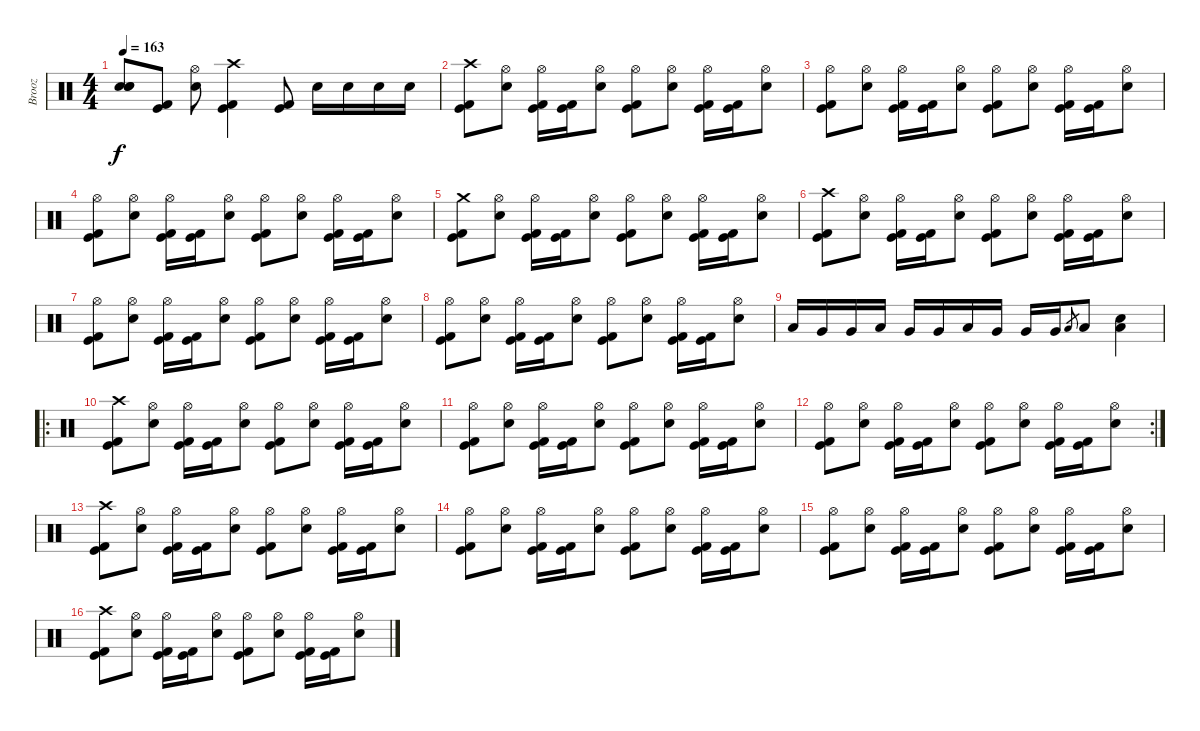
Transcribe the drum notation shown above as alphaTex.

\track ("Brooz" "Brooz") {instrument percussion}
\staff {score}
\articulation defaults
\ts (4 4)
\tempo 163
\clef neutral
\ks c
("Snare (hit)"{t} "Snare (hit)"{t} "Snare (hit)"{t}).8{dy f} ("Kick (hit) 2" "Kick (hit)").8 ("Snare (hit) 2" "Hi-Hat (open)").8 ("Kick (hit) 2" "Kick (hit)" "Crash high (hit)").4 ("Kick (hit) 2" "Kick (hit)").8 "Snare (hit) 2".16 "Snare (hit) 2".16 "Snare (hit) 2".16 "Snare (hit) 2".16 |
("Kick (hit) 2" "Kick (hit)" "Crash high (hit)").8 ("Snare (hit) 2" "Hi-Hat (open)").8 ("Hi-Hat (open)" "Kick (hit) 2" "Kick (hit)").16 ("Kick (hit) 2" "Kick (hit)").16 ("Hi-Hat (open)" "Snare (hit) 2").8 ("Kick (hit) 2" "Kick (hit)" "Hi-Hat (open)").8 ("Snare (hit) 2" "Hi-Hat (open)").8 ("Hi-Hat (open)" "Kick (hit) 2" "Kick (hit)").16 ("Kick (hit) 2" "Kick (hit)").16 ("Hi-Hat (open)" "Snare (hit) 2").8 |
("Kick (hit) 2" "Kick (hit)" "Hi-Hat (open)").8 ("Snare (hit) 2" "Hi-Hat (open)").8 ("Hi-Hat (open)" "Kick (hit) 2" "Kick (hit)").16 ("Kick (hit) 2" "Kick (hit)").16 ("Hi-Hat (open)" "Snare (hit) 2").8 ("Kick (hit) 2" "Kick (hit)" "Hi-Hat (open)").8 ("Snare (hit) 2" "Hi-Hat (open)").8 ("Hi-Hat (open)" "Kick (hit) 2" "Kick (hit)").16 ("Kick (hit) 2" "Kick (hit)").16 ("Hi-Hat (open)" "Snare (hit) 2").8 |
("Kick (hit) 2" "Kick (hit)" "Hi-Hat (open)").8 ("Snare (hit) 2" "Hi-Hat (open)").8 ("Hi-Hat (open)" "Kick (hit) 2" "Kick (hit)").16 ("Kick (hit) 2" "Kick (hit)").16 ("Hi-Hat (open)" "Snare (hit) 2").8 ("Kick (hit) 2" "Kick (hit)" "Hi-Hat (open)").8 ("Snare (hit) 2" "Hi-Hat (open)").8 ("Hi-Hat (open)" "Kick (hit) 2" "Kick (hit)").16 ("Kick (hit) 2" "Kick (hit)").16 ("Hi-Hat (open)" "Snare (hit) 2").8 |
("Kick (hit) 2" "Kick (hit)" "Crash medium (hit)").8 ("Snare (hit) 2" "Hi-Hat (open)").8 ("Hi-Hat (open)" "Kick (hit) 2" "Kick (hit)").16 ("Kick (hit) 2" "Kick (hit)").16 ("Hi-Hat (open)" "Snare (hit) 2").8 ("Kick (hit) 2" "Kick (hit)" "Hi-Hat (open)").8 ("Snare (hit) 2" "Hi-Hat (open)").8 ("Hi-Hat (open)" "Kick (hit) 2" "Kick (hit)").16 ("Kick (hit) 2" "Kick (hit)").16 ("Hi-Hat (open)" "Snare (hit) 2").8 |
("Kick (hit) 2" "Kick (hit)" "Crash high (hit)").8 ("Snare (hit) 2" "Hi-Hat (open)").8 ("Hi-Hat (open)" "Kick (hit) 2" "Kick (hit)").16 ("Kick (hit) 2" "Kick (hit)").16 ("Hi-Hat (open)" "Snare (hit) 2").8 ("Kick (hit) 2" "Kick (hit)" "Hi-Hat (open)").8 ("Snare (hit) 2" "Hi-Hat (open)").8 ("Hi-Hat (open)" "Kick (hit) 2" "Kick (hit)").16 ("Kick (hit) 2" "Kick (hit)").16 ("Hi-Hat (open)" "Snare (hit) 2").8 |
("Kick (hit) 2" "Kick (hit)" "Hi-Hat (open)").8 ("Snare (hit) 2" "Hi-Hat (open)").8 ("Hi-Hat (open)" "Kick (hit) 2" "Kick (hit)").16 ("Kick (hit) 2" "Kick (hit)").16 ("Hi-Hat (open)" "Snare (hit) 2").8 ("Kick (hit) 2" "Kick (hit)" "Hi-Hat (open)").8 ("Snare (hit) 2" "Hi-Hat (open)").8 ("Hi-Hat (open)" "Kick (hit) 2" "Kick (hit)").16 ("Kick (hit) 2" "Kick (hit)").16 ("Hi-Hat (open)" "Snare (hit) 2").8 |
("Kick (hit) 2" "Kick (hit)" "Hi-Hat (open)").8 ("Snare (hit) 2" "Hi-Hat (open)").8 ("Hi-Hat (open)" "Kick (hit) 2" "Kick (hit)").16 ("Kick (hit) 2" "Kick (hit)").16 ("Hi-Hat (open)" "Snare (hit) 2").8 ("Kick (hit) 2" "Kick (hit)" "Hi-Hat (open)").8 ("Snare (hit) 2" "Hi-Hat (open)").8 ("Hi-Hat (open)" "Kick (hit) 2" "Kick (hit)").16 ("Kick (hit) 2" "Kick (hit)").16 ("Hi-Hat (open)" "Snare (hit) 2").8 |
"Low Tom (hit)".16 "Very Low Tom (hit)".16 "Very Low Tom (hit)".16 "Low Tom (hit)".16 "Very Low Tom (hit)".16 "Very Low Tom (hit)".16 "Low Tom (hit)".16 "Very Low Tom (hit)".16 "Very Low Tom (hit)".16 "Very Low Tom (hit)".16 "Low Tom (hit)".8{gr} "Low Tom (hit)".8 ("Snare (hit) 2" "Low Tom (hit)").4 |
\ro
("Kick (hit) 2" "Kick (hit)" "Crash high (hit)").8 ("Snare (hit) 2" "Hi-Hat (open)").8 ("Hi-Hat (open)" "Kick (hit) 2" "Kick (hit)").16 ("Kick (hit) 2" "Kick (hit)").16 ("Hi-Hat (open)" "Snare (hit) 2").8 ("Kick (hit) 2" "Kick (hit)" "Hi-Hat (open)").8 ("Snare (hit) 2" "Hi-Hat (open)").8 ("Hi-Hat (open)" "Kick (hit) 2" "Kick (hit)").16 ("Kick (hit) 2" "Kick (hit)").16 ("Hi-Hat (open)" "Snare (hit) 2").8 |
("Kick (hit) 2" "Kick (hit)" "Hi-Hat (open)").8 ("Snare (hit) 2" "Hi-Hat (open)").8 ("Hi-Hat (open)" "Kick (hit) 2" "Kick (hit)").16 ("Kick (hit) 2" "Kick (hit)").16 ("Hi-Hat (open)" "Snare (hit) 2").8 ("Kick (hit) 2" "Kick (hit)" "Hi-Hat (open)").8 ("Snare (hit) 2" "Hi-Hat (open)").8 ("Hi-Hat (open)" "Kick (hit) 2" "Kick (hit)").16 ("Kick (hit) 2" "Kick (hit)").16 ("Hi-Hat (open)" "Snare (hit) 2").8 |
\rc 2
("Kick (hit) 2" "Kick (hit)" "Hi-Hat (open)").8 ("Snare (hit) 2" "Hi-Hat (open)").8 ("Hi-Hat (open)" "Kick (hit) 2" "Kick (hit)").16 ("Kick (hit) 2" "Kick (hit)").16 ("Hi-Hat (open)" "Snare (hit) 2").8 ("Kick (hit) 2" "Kick (hit)" "Hi-Hat (open)").8 ("Snare (hit) 2" "Hi-Hat (open)").8 ("Hi-Hat (open)" "Kick (hit) 2" "Kick (hit)").16 ("Kick (hit) 2" "Kick (hit)").16 ("Hi-Hat (open)" "Snare (hit) 2").8 |
("Kick (hit) 2" "Kick (hit)" "Crash high (hit)").8 ("Snare (hit) 2" "Hi-Hat (open)").8 ("Hi-Hat (open)" "Kick (hit) 2" "Kick (hit)").16 ("Kick (hit) 2" "Kick (hit)").16 ("Hi-Hat (open)" "Snare (hit) 2").8 ("Kick (hit) 2" "Kick (hit)" "Hi-Hat (open)").8 ("Snare (hit) 2" "Hi-Hat (open)").8 ("Hi-Hat (open)" "Kick (hit) 2" "Kick (hit)").16 ("Kick (hit) 2" "Kick (hit)").16 ("Hi-Hat (open)" "Snare (hit) 2").8 |
("Kick (hit) 2" "Kick (hit)" "Hi-Hat (open)").8 ("Snare (hit) 2" "Hi-Hat (open)").8 ("Hi-Hat (open)" "Kick (hit) 2" "Kick (hit)").16 ("Kick (hit) 2" "Kick (hit)").16 ("Hi-Hat (open)" "Snare (hit) 2").8 ("Kick (hit) 2" "Kick (hit)" "Hi-Hat (open)").8 ("Snare (hit) 2" "Hi-Hat (open)").8 ("Hi-Hat (open)" "Kick (hit) 2" "Kick (hit)").16 ("Kick (hit) 2" "Kick (hit)").16 ("Hi-Hat (open)" "Snare (hit) 2").8 |
("Kick (hit) 2" "Kick (hit)" "Hi-Hat (open)").8 ("Snare (hit) 2" "Hi-Hat (open)").8 ("Hi-Hat (open)" "Kick (hit) 2" "Kick (hit)").16 ("Kick (hit) 2" "Kick (hit)").16 ("Hi-Hat (open)" "Snare (hit) 2").8 ("Kick (hit) 2" "Kick (hit)" "Hi-Hat (open)").8 ("Snare (hit) 2" "Hi-Hat (open)").8 ("Hi-Hat (open)" "Kick (hit) 2" "Kick (hit)").16 ("Kick (hit) 2" "Kick (hit)").16 ("Hi-Hat (open)" "Snare (hit) 2").8 |
("Kick (hit) 2" "Kick (hit)" "Crash high (hit)").8 ("Snare (hit) 2" "Hi-Hat (open)").8 ("Hi-Hat (open)" "Kick (hit) 2" "Kick (hit)").16 ("Kick (hit) 2" "Kick (hit)").16 ("Hi-Hat (open)" "Snare (hit) 2").8 ("Kick (hit) 2" "Kick (hit)" "Hi-Hat (open)").8 ("Snare (hit) 2" "Hi-Hat (open)").8 ("Hi-Hat (open)" "Kick (hit) 2" "Kick (hit)").16 ("Kick (hit) 2" "Kick (hit)").16 ("Hi-Hat (open)" "Snare (hit) 2").8
